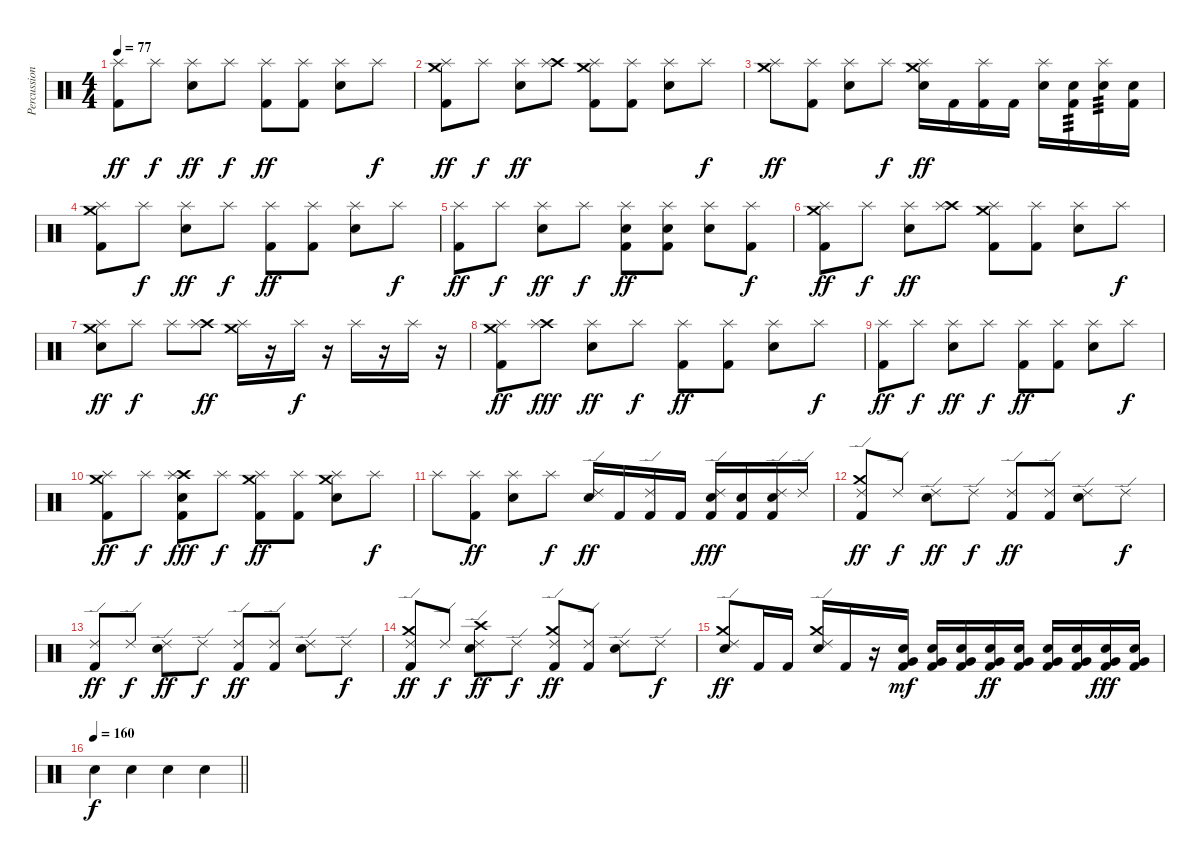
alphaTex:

\track ("Percussion" "Percussion") {instrument percussion}
\staff {score}
\articulation defaults
\ts (4 4)
\tempo 77
\clef neutral
\ks c
("Splash (hit)" "Kick (hit) 2").8{dy ff} "Splash (hit)".8{dy f} ("Splash (hit)" "Electric Snare (hit)").8{dy ff} "Splash (hit)".8{dy f} ("Splash (hit)" "Kick (hit) 2").8{dy ff} ("Splash (hit)" "Kick (hit) 2").8 ("Splash (hit)" "Electric Snare (hit)").8 "Splash (hit)".8{dy f} |
("Crash medium (hit)" "Splash (hit)" "Kick (hit) 2").8{dy ff} "Splash (hit)".8{dy f} ("Splash (hit)" "Electric Snare (hit)").8{dy ff} ("Crash high (hit)" "Splash (hit)").8 ("Crash medium (hit)" "Splash (hit)" "Kick (hit) 2").8 ("Splash (hit)" "Kick (hit) 2").8 ("Splash (hit)" "Electric Snare (hit)").8 "Splash (hit)".8{dy f} |
("Crash medium (hit)" "Splash (hit)").8{dy ff} ("Splash (hit)" "Kick (hit) 2").8 ("Splash (hit)" "Electric Snare (hit)").8 "Splash (hit)".8{dy f} ("Crash medium (hit)" "Splash (hit)" "Electric Snare (hit)").16{dy ff} "Kick (hit) 2".16 ("Splash (hit)" "Kick (hit) 2").16 "Kick (hit) 2".16 ("Splash (hit)" "Electric Snare (hit)").16 ("Electric Snare (hit)" "Kick (hit) 2").16{tp 3} ("Splash (hit)" "Electric Snare (hit)").16{tp 3} ("Electric Snare (hit)" "Kick (hit) 2").16 |
("Crash medium (hit)" "Splash (hit)" "Kick (hit) 2").8 "Splash (hit)".8{dy f} ("Splash (hit)" "Electric Snare (hit)").8{dy ff} "Splash (hit)".8{dy f} ("Splash (hit)" "Kick (hit) 2").8{dy ff} ("Splash (hit)" "Kick (hit) 2").8 ("Splash (hit)" "Electric Snare (hit)").8 "Splash (hit)".8{dy f} |
("Splash (hit)" "Kick (hit) 2").8{dy ff} "Splash (hit)".8{dy f} ("Splash (hit)" "Electric Snare (hit)").8{dy ff} "Splash (hit)".8{dy f} ("Splash (hit)" "Electric Snare (hit)" "Kick (hit) 2").8{dy ff} ("Splash (hit)" "Electric Snare (hit)" "Kick (hit) 2").8 ("Splash (hit)" "Electric Snare (hit)").8 ("Splash (hit)" "Kick (hit) 2").8{dy f} |
("Crash medium (hit)" "Splash (hit)" "Kick (hit) 2").8{dy ff} "Splash (hit)".8{dy f} ("Splash (hit)" "Electric Snare (hit)").8{dy ff} ("Crash high (hit)" "Splash (hit)").8 ("Crash medium (hit)" "Splash (hit)" "Kick (hit) 2").8 ("Splash (hit)" "Kick (hit) 2").8 ("Splash (hit)" "Electric Snare (hit)").8 "Splash (hit)".8{dy f} |
("Crash medium (hit)" "Splash (hit)" "Electric Snare (hit)").8{dy ff} "Splash (hit)".8{dy f} "Splash (hit)".8 ("Crash high (hit)" "Splash (hit)").8{dy ff} ("Crash medium (hit)" "Splash (hit)").16 r.16 "Splash (hit)".16{dy f} r.16 "Splash (hit)".16 r.16 "Splash (hit)".16 r.16 |
("Crash medium (hit)" "Splash (hit)" "Kick (hit) 2").8{dy ff} ("Crash high (hit)" "Splash (hit)").8{dy fff} ("Splash (hit)" "Electric Snare (hit)").8{dy ff} "Splash (hit)".8{dy f} ("Splash (hit)" "Kick (hit) 2").8{dy ff} ("Splash (hit)" "Kick (hit) 2").8 ("Splash (hit)" "Electric Snare (hit)").8 "Splash (hit)".8{dy f} |
("Splash (hit)" "Kick (hit) 2").8{dy ff} "Splash (hit)".8{dy f} ("Splash (hit)" "Electric Snare (hit)").8{dy ff} "Splash (hit)".8{dy f} ("Splash (hit)" "Kick (hit) 2").8{dy ff} ("Splash (hit)" "Kick (hit) 2").8 ("Splash (hit)" "Electric Snare (hit)").8 "Splash (hit)".8{dy f} |
("Crash medium (hit)" "Splash (hit)" "Kick (hit) 2").8{dy ff} "Splash (hit)".8{dy f} ("Crash high (hit)" "Splash (hit)" "Electric Snare (hit)" "Kick (hit) 2").8{dy fff} "Splash (hit)".8{dy f} ("Crash medium (hit)" "Splash (hit)" "Kick (hit) 2").8{dy ff} ("Splash (hit)" "Kick (hit) 2").8 ("Crash medium (hit)" "Splash (hit)" "Electric Snare (hit)").8 "Splash (hit)".8{dy f} |
"Splash (hit)".8 ("Splash (hit)" "Kick (hit) 2").8{dy ff} ("Splash (hit)" "Electric Snare (hit)").8 "Splash (hit)".8{dy f} ("Ride (edge) 2" "Electric Snare (hit)").16{dy ff} "Kick (hit) 2".16 ("Ride (edge) 2" "Kick (hit) 2").16 "Kick (hit) 2".16 ("Ride (edge) 2" "Electric Snare (hit)" "Kick (hit) 2").16{dy fff} ("Electric Snare (hit)" "Kick (hit) 2").16 ("Ride (edge) 2" "Electric Snare (hit)" "Kick (hit) 2").16 "Ride (edge) 2".16 |
("Crash medium (hit)" "Ride (edge) 2" "Kick (hit) 2").8{dy ff} "Ride (edge) 2".8{dy f} ("Ride (edge) 2" "Electric Snare (hit)").8{dy ff} "Ride (edge) 2".8{dy f} ("Ride (edge) 2" "Kick (hit) 2").8{dy ff} ("Ride (edge) 2" "Kick (hit) 2").8 ("Ride (edge) 2" "Electric Snare (hit)").8 "Ride (edge) 2".8{dy f} |
("Ride (edge) 2" "Kick (hit) 2").8{dy ff} "Ride (edge) 2".8{dy f} ("Ride (edge) 2" "Electric Snare (hit)").8{dy ff} "Ride (edge) 2".8{dy f} ("Ride (edge) 2" "Kick (hit) 2").8{dy ff} ("Ride (edge) 2" "Kick (hit) 2").8 ("Ride (edge) 2" "Electric Snare (hit)").8 "Ride (edge) 2".8{dy f} |
("Crash medium (hit)" "Ride (edge) 2" "Kick (hit) 2").8{dy ff} "Ride (edge) 2".8{dy f} ("Crash high (hit)" "Ride (edge) 2" "Electric Snare (hit)").8{dy ff} "Ride (edge) 2".8{dy f} ("Crash medium (hit)" "Ride (edge) 2" "Kick (hit) 2").8{dy ff} ("Ride (edge) 2" "Kick (hit) 2").8 ("Ride (edge) 2" "Electric Snare (hit)").8 "Ride (edge) 2".8{dy f} |
("Crash medium (hit)" "Ride (edge) 2" "Electric Snare (hit)").8{dy ff} "Kick (hit) 2".16 "Kick (hit) 2".16 ("Crash medium (hit)" "Ride (edge) 2" "Electric Snare (hit)").16 "Kick (hit) 2".16 r.16 ("Very Low Tom (hit)" "Electric Snare (hit)" "Kick (hit) 2").16{dy mf} ("Very Low Tom (hit)" "Electric Snare (hit)" "Kick (hit) 2").16 ("Very Low Tom (hit)" "Electric Snare (hit)" "Kick (hit) 2").16 ("Very Low Tom (hit)" "Electric Snare (hit)" "Kick (hit) 2").16{dy ff} ("Very Low Tom (hit)" "Electric Snare (hit)" "Kick (hit) 2").16 ("Very Low Tom (hit)" "Electric Snare (hit)" "Kick (hit) 2").16 ("Very Low Tom (hit)" "Electric Snare (hit)" "Kick (hit) 2").16 ("Very Low Tom (hit)" "Electric Snare (hit)" "Kick (hit) 2").16{dy fff} ("Very Low Tom (hit)" "Electric Snare (hit)" "Kick (hit) 2").16 |
\tempo 160
\barLineRight lightlight "Electric Snare (hit)".4{dy f} "Electric Snare (hit)".4 "Electric Snare (hit)".4 "Electric Snare (hit)".4
